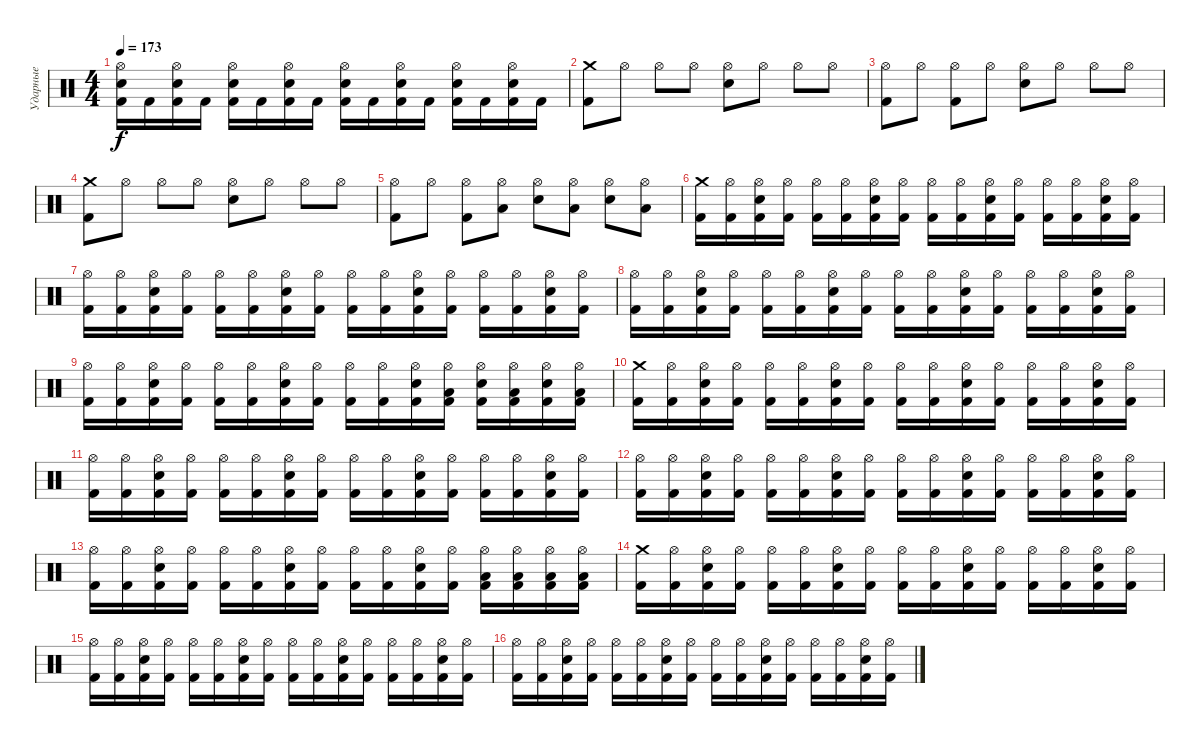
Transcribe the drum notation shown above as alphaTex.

\track ("Ударные" "Ударные") {instrument percussion}
\staff {score}
\articulation defaults
\ts (4 4)
\tempo 173
\clef neutral
\ks c
("Hi-Hat (open)" "Electric Snare (hit)" "Kick (hit) 2").16{dy f} "Kick (hit) 2".16 ("Hi-Hat (open)" "Electric Snare (hit)" "Kick (hit) 2").16 "Kick (hit) 2".16 ("Hi-Hat (open)" "Electric Snare (hit)" "Kick (hit) 2").16 "Kick (hit) 2".16 ("Hi-Hat (open)" "Electric Snare (hit)" "Kick (hit) 2").16 "Kick (hit) 2".16 ("Hi-Hat (open)" "Electric Snare (hit)" "Kick (hit) 2").16 "Kick (hit) 2".16 ("Hi-Hat (open)" "Electric Snare (hit)" "Kick (hit) 2").16 "Kick (hit) 2".16 ("Hi-Hat (open)" "Electric Snare (hit)" "Kick (hit) 2").16 "Kick (hit) 2".16 ("Hi-Hat (open)" "Electric Snare (hit)" "Kick (hit) 2").16 "Kick (hit) 2".16 |
("Crash medium (hit)" "Kick (hit) 2").8 "Hi-Hat (open)".8 "Hi-Hat (open)".8 "Hi-Hat (open)".8 ("Hi-Hat (open)" "Electric Snare (hit)").8 "Hi-Hat (open)".8 "Hi-Hat (open)".8 "Hi-Hat (open)".8 |
("Hi-Hat (open)" "Kick (hit) 2").8 "Hi-Hat (open)".8 ("Hi-Hat (open)" "Kick (hit) 2").8 "Hi-Hat (open)".8 ("Hi-Hat (open)" "Electric Snare (hit)").8 "Hi-Hat (open)".8 "Hi-Hat (open)".8 "Hi-Hat (open)".8 |
("Crash medium (hit)" "Kick (hit) 2").8 "Hi-Hat (open)".8 "Hi-Hat (open)".8 "Hi-Hat (open)".8 ("Hi-Hat (open)" "Electric Snare (hit)").8 "Hi-Hat (open)".8 "Hi-Hat (open)".8 "Hi-Hat (open)".8 |
("Hi-Hat (open)" "Kick (hit) 2").8 "Hi-Hat (open)".8 ("Hi-Hat (open)" "Kick (hit) 2").8 ("Hi-Hat (open)" "Low Tom (hit)").8 ("Hi-Hat (open)" "Electric Snare (hit)").8 ("Hi-Hat (open)" "Low Tom (hit)").8 ("Hi-Hat (open)" "Electric Snare (hit)").8 ("Hi-Hat (open)" "Low Tom (hit)").8 |
("Crash medium (hit)" "Kick (hit) 2").16 ("Hi-Hat (open)" "Kick (hit) 2").16 ("Hi-Hat (open)" "Electric Snare (hit)" "Kick (hit) 2").16 ("Hi-Hat (open)" "Kick (hit) 2").16 ("Hi-Hat (open)" "Kick (hit) 2").16 ("Hi-Hat (open)" "Kick (hit) 2").16 ("Hi-Hat (open)" "Electric Snare (hit)" "Kick (hit) 2").16 ("Hi-Hat (open)" "Kick (hit) 2").16 ("Hi-Hat (open)" "Kick (hit) 2").16 ("Hi-Hat (open)" "Kick (hit) 2").16 ("Hi-Hat (open)" "Electric Snare (hit)" "Kick (hit) 2").16 ("Hi-Hat (open)" "Kick (hit) 2").16 ("Hi-Hat (open)" "Kick (hit) 2").16 ("Hi-Hat (open)" "Kick (hit) 2").16 ("Hi-Hat (open)" "Electric Snare (hit)" "Kick (hit) 2").16 ("Hi-Hat (open)" "Kick (hit) 2").16 |
("Hi-Hat (open)" "Kick (hit) 2").16 ("Hi-Hat (open)" "Kick (hit) 2").16 ("Hi-Hat (open)" "Electric Snare (hit)" "Kick (hit) 2").16 ("Hi-Hat (open)" "Kick (hit) 2").16 ("Hi-Hat (open)" "Kick (hit) 2").16 ("Hi-Hat (open)" "Kick (hit) 2").16 ("Hi-Hat (open)" "Electric Snare (hit)" "Kick (hit) 2").16 ("Hi-Hat (open)" "Kick (hit) 2").16 ("Hi-Hat (open)" "Kick (hit) 2").16 ("Hi-Hat (open)" "Kick (hit) 2").16 ("Hi-Hat (open)" "Electric Snare (hit)" "Kick (hit) 2").16 ("Hi-Hat (open)" "Kick (hit) 2").16 ("Hi-Hat (open)" "Kick (hit) 2").16 ("Hi-Hat (open)" "Kick (hit) 2").16 ("Hi-Hat (open)" "Electric Snare (hit)" "Kick (hit) 2").16 ("Hi-Hat (open)" "Kick (hit) 2").16 |
("Hi-Hat (open)" "Kick (hit) 2").16 ("Hi-Hat (open)" "Kick (hit) 2").16 ("Hi-Hat (open)" "Electric Snare (hit)" "Kick (hit) 2").16 ("Hi-Hat (open)" "Kick (hit) 2").16 ("Hi-Hat (open)" "Kick (hit) 2").16 ("Hi-Hat (open)" "Kick (hit) 2").16 ("Hi-Hat (open)" "Electric Snare (hit)" "Kick (hit) 2").16 ("Hi-Hat (open)" "Kick (hit) 2").16 ("Hi-Hat (open)" "Kick (hit) 2").16 ("Hi-Hat (open)" "Kick (hit) 2").16 ("Hi-Hat (open)" "Electric Snare (hit)" "Kick (hit) 2").16 ("Hi-Hat (open)" "Kick (hit) 2").16 ("Hi-Hat (open)" "Kick (hit) 2").16 ("Hi-Hat (open)" "Kick (hit) 2").16 ("Hi-Hat (open)" "Electric Snare (hit)" "Kick (hit) 2").16 ("Hi-Hat (open)" "Kick (hit) 2").16 |
("Hi-Hat (open)" "Kick (hit) 2").16 ("Hi-Hat (open)" "Kick (hit) 2").16 ("Hi-Hat (open)" "Electric Snare (hit)" "Kick (hit) 2").16 ("Hi-Hat (open)" "Kick (hit) 2").16 ("Hi-Hat (open)" "Kick (hit) 2").16 ("Hi-Hat (open)" "Kick (hit) 2").16 ("Hi-Hat (open)" "Electric Snare (hit)" "Kick (hit) 2").16 ("Hi-Hat (open)" "Kick (hit) 2").16 ("Hi-Hat (open)" "Kick (hit) 2").16 ("Hi-Hat (open)" "Kick (hit) 2").16 ("Hi-Hat (open)" "Electric Snare (hit)" "Kick (hit) 2").16 ("Hi-Hat (open)" "Low Tom (hit)" "Kick (hit) 2").16 ("Hi-Hat (open)" "Electric Snare (hit)" "Kick (hit) 2").16 ("Hi-Hat (open)" "Low Tom (hit)" "Kick (hit) 2").16 ("Hi-Hat (open)" "Electric Snare (hit)" "Kick (hit) 2").16 ("Hi-Hat (open)" "Low Tom (hit)" "Kick (hit) 2").16 |
("Crash medium (hit)" "Kick (hit) 2").16 ("Hi-Hat (open)" "Kick (hit) 2").16 ("Hi-Hat (open)" "Electric Snare (hit)" "Kick (hit) 2").16 ("Hi-Hat (open)" "Kick (hit) 2").16 ("Hi-Hat (open)" "Kick (hit) 2").16 ("Hi-Hat (open)" "Kick (hit) 2").16 ("Hi-Hat (open)" "Electric Snare (hit)" "Kick (hit) 2").16 ("Hi-Hat (open)" "Kick (hit) 2").16 ("Hi-Hat (open)" "Kick (hit) 2").16 ("Hi-Hat (open)" "Kick (hit) 2").16 ("Hi-Hat (open)" "Electric Snare (hit)" "Kick (hit) 2").16 ("Hi-Hat (open)" "Kick (hit) 2").16 ("Hi-Hat (open)" "Kick (hit) 2").16 ("Hi-Hat (open)" "Kick (hit) 2").16 ("Hi-Hat (open)" "Electric Snare (hit)" "Kick (hit) 2").16 ("Hi-Hat (open)" "Kick (hit) 2").16 |
("Hi-Hat (open)" "Kick (hit) 2").16 ("Hi-Hat (open)" "Kick (hit) 2").16 ("Hi-Hat (open)" "Electric Snare (hit)" "Kick (hit) 2").16 ("Hi-Hat (open)" "Kick (hit) 2").16 ("Hi-Hat (open)" "Kick (hit) 2").16 ("Hi-Hat (open)" "Kick (hit) 2").16 ("Hi-Hat (open)" "Electric Snare (hit)" "Kick (hit) 2").16 ("Hi-Hat (open)" "Kick (hit) 2").16 ("Hi-Hat (open)" "Kick (hit) 2").16 ("Hi-Hat (open)" "Kick (hit) 2").16 ("Hi-Hat (open)" "Electric Snare (hit)" "Kick (hit) 2").16 ("Hi-Hat (open)" "Kick (hit) 2").16 ("Hi-Hat (open)" "Kick (hit) 2").16 ("Hi-Hat (open)" "Kick (hit) 2").16 ("Hi-Hat (open)" "Electric Snare (hit)" "Kick (hit) 2").16 ("Hi-Hat (open)" "Kick (hit) 2").16 |
("Hi-Hat (open)" "Kick (hit) 2").16 ("Hi-Hat (open)" "Kick (hit) 2").16 ("Hi-Hat (open)" "Electric Snare (hit)" "Kick (hit) 2").16 ("Hi-Hat (open)" "Kick (hit) 2").16 ("Hi-Hat (open)" "Kick (hit) 2").16 ("Hi-Hat (open)" "Kick (hit) 2").16 ("Hi-Hat (open)" "Electric Snare (hit)" "Kick (hit) 2").16 ("Hi-Hat (open)" "Kick (hit) 2").16 ("Hi-Hat (open)" "Kick (hit) 2").16 ("Hi-Hat (open)" "Kick (hit) 2").16 ("Hi-Hat (open)" "Electric Snare (hit)" "Kick (hit) 2").16 ("Hi-Hat (open)" "Kick (hit) 2").16 ("Hi-Hat (open)" "Kick (hit) 2").16 ("Hi-Hat (open)" "Kick (hit) 2").16 ("Hi-Hat (open)" "Electric Snare (hit)" "Kick (hit) 2").16 ("Hi-Hat (open)" "Kick (hit) 2").16 |
("Hi-Hat (open)" "Kick (hit) 2").16 ("Hi-Hat (open)" "Kick (hit) 2").16 ("Hi-Hat (open)" "Electric Snare (hit)" "Kick (hit) 2").16 ("Hi-Hat (open)" "Kick (hit) 2").16 ("Hi-Hat (open)" "Kick (hit) 2").16 ("Hi-Hat (open)" "Kick (hit) 2").16 ("Hi-Hat (open)" "Electric Snare (hit)" "Kick (hit) 2").16 ("Hi-Hat (open)" "Kick (hit) 2").16 ("Hi-Hat (open)" "Kick (hit) 2").16 ("Hi-Hat (open)" "Kick (hit) 2").16 ("Hi-Hat (open)" "Electric Snare (hit)" "Kick (hit) 2").16 ("Hi-Hat (open)" "Kick (hit) 2").16 ("Hi-Hat (open)" "Low Tom (hit)" "Kick (hit) 2").16 ("Hi-Hat (open)" "Low Tom (hit)" "Kick (hit) 2").16 ("Hi-Hat (open)" "Low Tom (hit)" "Kick (hit) 2").16 ("Hi-Hat (open)" "Low Tom (hit)" "Kick (hit) 2").16 |
("Crash medium (hit)" "Kick (hit) 2").16 ("Hi-Hat (open)" "Kick (hit) 2").16 ("Hi-Hat (open)" "Electric Snare (hit)" "Kick (hit) 2").16 ("Hi-Hat (open)" "Kick (hit) 2").16 ("Hi-Hat (open)" "Kick (hit) 2").16 ("Hi-Hat (open)" "Kick (hit) 2").16 ("Hi-Hat (open)" "Electric Snare (hit)" "Kick (hit) 2").16 ("Hi-Hat (open)" "Kick (hit) 2").16 ("Hi-Hat (open)" "Kick (hit) 2").16 ("Hi-Hat (open)" "Kick (hit) 2").16 ("Hi-Hat (open)" "Electric Snare (hit)" "Kick (hit) 2").16 ("Hi-Hat (open)" "Kick (hit) 2").16 ("Hi-Hat (open)" "Kick (hit) 2").16 ("Hi-Hat (open)" "Kick (hit) 2").16 ("Hi-Hat (open)" "Electric Snare (hit)" "Kick (hit) 2").16 ("Hi-Hat (open)" "Kick (hit) 2").16 |
("Hi-Hat (open)" "Kick (hit) 2").16 ("Hi-Hat (open)" "Kick (hit) 2").16 ("Hi-Hat (open)" "Electric Snare (hit)" "Kick (hit) 2").16 ("Hi-Hat (open)" "Kick (hit) 2").16 ("Hi-Hat (open)" "Kick (hit) 2").16 ("Hi-Hat (open)" "Kick (hit) 2").16 ("Hi-Hat (open)" "Electric Snare (hit)" "Kick (hit) 2").16 ("Hi-Hat (open)" "Kick (hit) 2").16 ("Hi-Hat (open)" "Kick (hit) 2").16 ("Hi-Hat (open)" "Kick (hit) 2").16 ("Hi-Hat (open)" "Electric Snare (hit)" "Kick (hit) 2").16 ("Hi-Hat (open)" "Kick (hit) 2").16 ("Hi-Hat (open)" "Kick (hit) 2").16 ("Hi-Hat (open)" "Kick (hit) 2").16 ("Hi-Hat (open)" "Electric Snare (hit)" "Kick (hit) 2").16 ("Hi-Hat (open)" "Kick (hit) 2").16 |
("Hi-Hat (open)" "Kick (hit) 2").16 ("Hi-Hat (open)" "Kick (hit) 2").16 ("Hi-Hat (open)" "Electric Snare (hit)" "Kick (hit) 2").16 ("Hi-Hat (open)" "Kick (hit) 2").16 ("Hi-Hat (open)" "Kick (hit) 2").16 ("Hi-Hat (open)" "Kick (hit) 2").16 ("Hi-Hat (open)" "Electric Snare (hit)" "Kick (hit) 2").16 ("Hi-Hat (open)" "Kick (hit) 2").16 ("Hi-Hat (open)" "Kick (hit) 2").16 ("Hi-Hat (open)" "Kick (hit) 2").16 ("Hi-Hat (open)" "Electric Snare (hit)" "Kick (hit) 2").16 ("Hi-Hat (open)" "Kick (hit) 2").16 ("Hi-Hat (open)" "Kick (hit) 2").16 ("Hi-Hat (open)" "Kick (hit) 2").16 ("Hi-Hat (open)" "Electric Snare (hit)" "Kick (hit) 2").16 ("Hi-Hat (open)" "Kick (hit) 2").16
